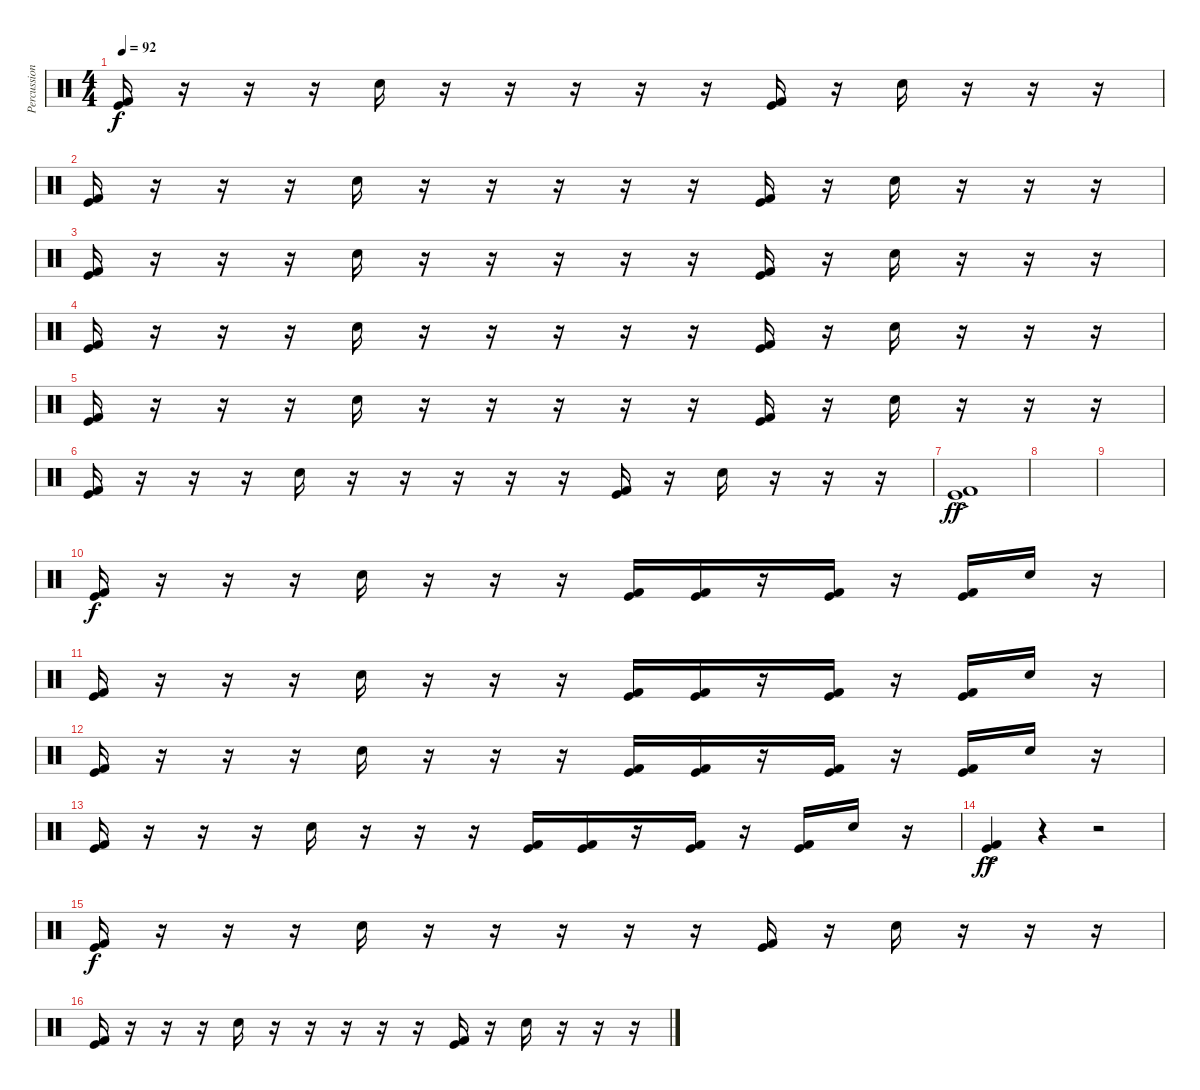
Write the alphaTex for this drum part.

\track ("Percussion" "Percussion") {instrument percussion}
\staff {score}
\articulation defaults
\ts (4 4)
\tempo 92
\clef neutral
\ks c
("Kick (hit)" "Kick (hit) 2").16{dy f} r.16 r.16 r.16 "Snare (hit) 2".16 r.16 r.16 r.16 r.16 r.16 ("Kick (hit)" "Kick (hit) 2").16 r.16 "Snare (hit) 2".16 r.16 r.16 r.16 |
("Kick (hit)" "Kick (hit) 2").16 r.16 r.16 r.16 "Snare (hit) 2".16 r.16 r.16 r.16 r.16 r.16 ("Kick (hit)" "Kick (hit) 2").16 r.16 "Snare (hit) 2".16 r.16 r.16 r.16 |
("Kick (hit)" "Kick (hit) 2").16 r.16 r.16 r.16 "Snare (hit) 2".16 r.16 r.16 r.16 r.16 r.16 ("Kick (hit)" "Kick (hit) 2").16 r.16 "Snare (hit) 2".16 r.16 r.16 r.16 |
("Kick (hit)" "Kick (hit) 2").16 r.16 r.16 r.16 "Snare (hit) 2".16 r.16 r.16 r.16 r.16 r.16 ("Kick (hit)" "Kick (hit) 2").16 r.16 "Snare (hit) 2".16 r.16 r.16 r.16 |
("Kick (hit)" "Kick (hit) 2").16 r.16 r.16 r.16 "Snare (hit) 2".16 r.16 r.16 r.16 r.16 r.16 ("Kick (hit)" "Kick (hit) 2").16 r.16 "Snare (hit) 2".16 r.16 r.16 r.16 |
("Kick (hit)" "Kick (hit) 2").16 r.16 r.16 r.16 "Snare (hit) 2".16 r.16 r.16 r.16 r.16 r.16 ("Kick (hit)" "Kick (hit) 2").16 r.16 "Snare (hit) 2".16 r.16 r.16 r.16 |
("Kick (hit)"{ac} "Kick (hit) 2"{ac}).1{dy ff} |
|
|
("Kick (hit)" "Kick (hit) 2").16{dy f} r.16 r.16 r.16 "Snare (hit) 2".16 r.16 r.16 r.16 ("Kick (hit)" "Kick (hit) 2").16 ("Kick (hit)" "Kick (hit) 2").16 r.16 ("Kick (hit)" "Kick (hit) 2").16 r.16 ("Kick (hit)" "Kick (hit) 2").16 "Snare (hit) 2".16 r.16 |
("Kick (hit)" "Kick (hit) 2").16 r.16 r.16 r.16 "Snare (hit) 2".16 r.16 r.16 r.16 ("Kick (hit)" "Kick (hit) 2").16 ("Kick (hit)" "Kick (hit) 2").16 r.16 ("Kick (hit)" "Kick (hit) 2").16 r.16 ("Kick (hit)" "Kick (hit) 2").16 "Snare (hit) 2".16 r.16 |
("Kick (hit)" "Kick (hit) 2").16 r.16 r.16 r.16 "Snare (hit) 2".16 r.16 r.16 r.16 ("Kick (hit)" "Kick (hit) 2").16 ("Kick (hit)" "Kick (hit) 2").16 r.16 ("Kick (hit)" "Kick (hit) 2").16 r.16 ("Kick (hit)" "Kick (hit) 2").16 "Snare (hit) 2".16 r.16 |
("Kick (hit)" "Kick (hit) 2").16 r.16 r.16 r.16 "Snare (hit) 2".16 r.16 r.16 r.16 ("Kick (hit)" "Kick (hit) 2").16 ("Kick (hit)" "Kick (hit) 2").16 r.16 ("Kick (hit)" "Kick (hit) 2").16 r.16 ("Kick (hit)" "Kick (hit) 2").16 "Snare (hit) 2".16 r.16 |
("Kick (hit)"{ac} "Kick (hit) 2"{ac}).4{dy ff} r.4 r.2 |
("Kick (hit)" "Kick (hit) 2").16{dy f} r.16 r.16 r.16 "Snare (hit) 2".16 r.16 r.16 r.16 r.16 r.16 ("Kick (hit)" "Kick (hit) 2").16 r.16 "Snare (hit) 2".16 r.16 r.16 r.16 |
("Kick (hit)" "Kick (hit) 2").16 r.16 r.16 r.16 "Snare (hit) 2".16 r.16 r.16 r.16 r.16 r.16 ("Kick (hit)" "Kick (hit) 2").16 r.16 "Snare (hit) 2".16 r.16 r.16 r.16
